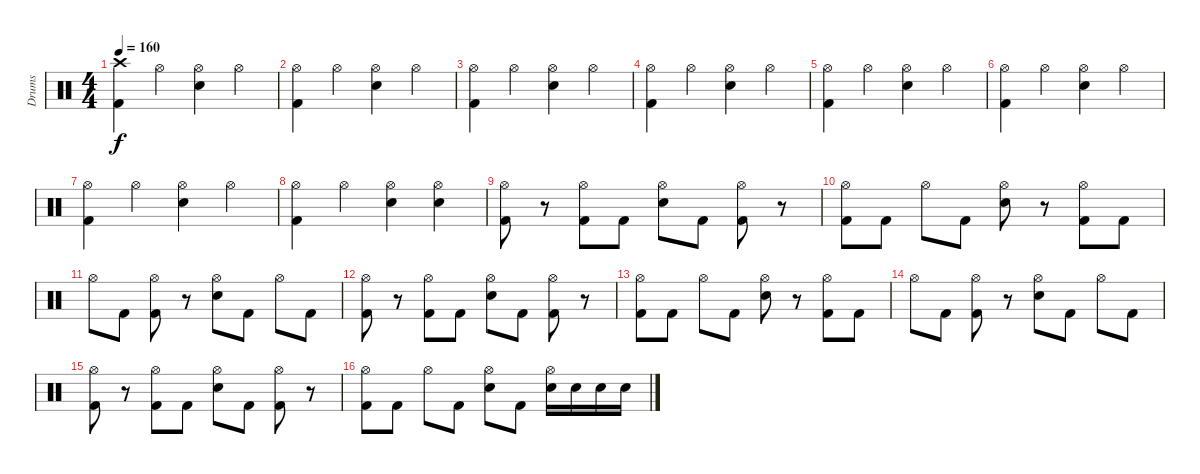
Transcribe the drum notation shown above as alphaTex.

\track ("Drums" "Drums") {instrument percussion}
\staff {score}
\articulation defaults
\ts (4 4)
\tempo 160
\clef neutral
\ks c
("Kick (hit) 2" "Crash high (hit)").4{dy f} "Hi-Hat (open)".4 ("Electric Snare (hit)" "Hi-Hat (open)").4 "Hi-Hat (open)".4 |
("Kick (hit) 2" "Hi-Hat (open)").4 "Hi-Hat (open)".4 ("Electric Snare (hit)" "Hi-Hat (open)").4 "Hi-Hat (open)".4 |
("Kick (hit) 2" "Hi-Hat (open)").4 "Hi-Hat (open)".4 ("Electric Snare (hit)" "Hi-Hat (open)").4 "Hi-Hat (open)".4 |
("Kick (hit) 2" "Hi-Hat (open)").4 "Hi-Hat (open)".4 ("Electric Snare (hit)" "Hi-Hat (open)").4 "Hi-Hat (open)".4 |
("Kick (hit) 2" "Hi-Hat (open)").4 "Hi-Hat (open)".4 ("Electric Snare (hit)" "Hi-Hat (open)").4 "Hi-Hat (open)".4 |
("Kick (hit) 2" "Hi-Hat (open)").4 "Hi-Hat (open)".4 ("Electric Snare (hit)" "Hi-Hat (open)").4 "Hi-Hat (open)".4 |
("Kick (hit) 2" "Hi-Hat (open)").4 "Hi-Hat (open)".4 ("Electric Snare (hit)" "Hi-Hat (open)").4 "Hi-Hat (open)".4 |
("Kick (hit) 2" "Hi-Hat (open)").4 "Hi-Hat (open)".4 ("Electric Snare (hit)" "Hi-Hat (open)").4 ("Electric Snare (hit)" "Hi-Hat (open)").4 |
("Kick (hit) 2" "Hi-Hat (open)").8 r.8 ("Kick (hit) 2" "Hi-Hat (open)").8 "Kick (hit) 2".8 ("Electric Snare (hit)" "Hi-Hat (open)").8 "Kick (hit) 2".8 ("Kick (hit) 2" "Hi-Hat (open)").8 r.8 |
("Kick (hit) 2" "Hi-Hat (open)").8 "Kick (hit) 2".8 "Hi-Hat (open)".8 "Kick (hit) 2".8 ("Electric Snare (hit)" "Hi-Hat (open)").8 r.8 ("Kick (hit) 2" "Hi-Hat (open)").8 "Kick (hit) 2".8 |
"Hi-Hat (open)".8 "Kick (hit) 2".8 ("Kick (hit) 2" "Hi-Hat (open)").8 r.8 ("Electric Snare (hit)" "Hi-Hat (open)").8 "Kick (hit) 2".8 "Hi-Hat (open)".8 "Kick (hit) 2".8 |
("Kick (hit) 2" "Hi-Hat (open)").8 r.8 ("Kick (hit) 2" "Hi-Hat (open)").8 "Kick (hit) 2".8 ("Electric Snare (hit)" "Hi-Hat (open)").8 "Kick (hit) 2".8 ("Kick (hit) 2" "Hi-Hat (open)").8 r.8 |
("Kick (hit) 2" "Hi-Hat (open)").8 "Kick (hit) 2".8 "Hi-Hat (open)".8 "Kick (hit) 2".8 ("Electric Snare (hit)" "Hi-Hat (open)").8 r.8 ("Kick (hit) 2" "Hi-Hat (open)").8 "Kick (hit) 2".8 |
"Hi-Hat (open)".8 "Kick (hit) 2".8 ("Kick (hit) 2" "Hi-Hat (open)").8 r.8 ("Electric Snare (hit)" "Hi-Hat (open)").8 "Kick (hit) 2".8 "Hi-Hat (open)".8 "Kick (hit) 2".8 |
("Kick (hit) 2" "Hi-Hat (open)").8 r.8 ("Kick (hit) 2" "Hi-Hat (open)").8 "Kick (hit) 2".8 ("Electric Snare (hit)" "Hi-Hat (open)").8 "Kick (hit) 2".8 ("Kick (hit) 2" "Hi-Hat (open)").8 r.8 |
("Kick (hit) 2" "Hi-Hat (open)").8 "Kick (hit) 2".8 "Hi-Hat (open)".8 "Kick (hit) 2".8 ("Electric Snare (hit)" "Hi-Hat (open)").8 "Kick (hit) 2".8 ("Electric Snare (hit)" "Hi-Hat (open)").16 "Electric Snare (hit)".16 "Electric Snare (hit)".16 "Electric Snare (hit)".16
